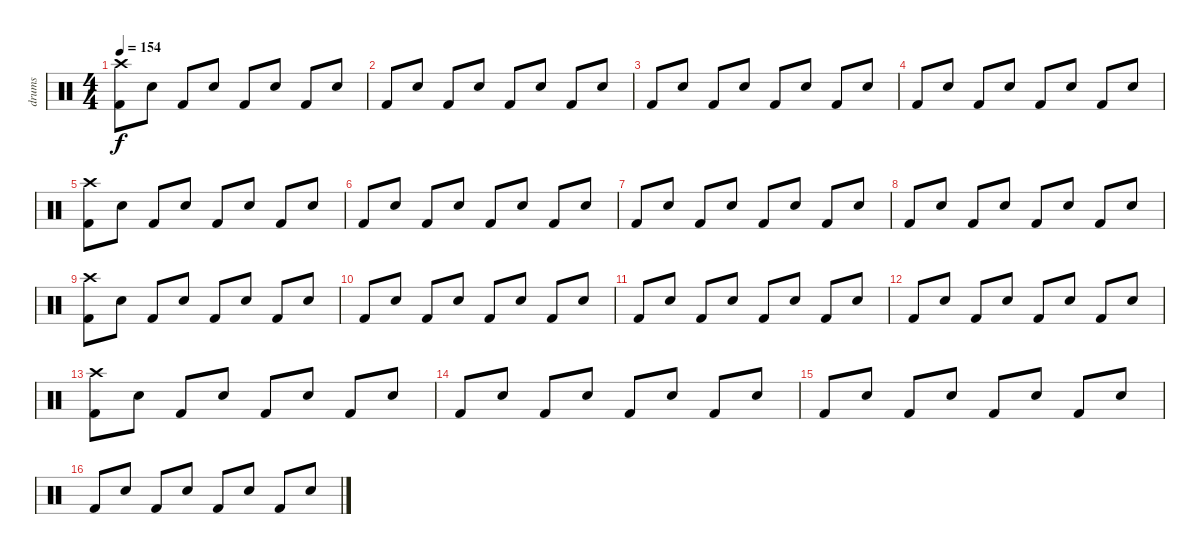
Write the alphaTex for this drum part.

\track ("drums" "drums") {instrument percussion}
\staff {score}
\articulation defaults
\ts (4 4)
\tempo 154
\clef neutral
\ks c
("Crash high (hit)" "Kick (hit) 2").8{dy f} "Snare (hit) 2".8 "Kick (hit) 2".8 "Snare (hit) 2".8 "Kick (hit) 2".8 "Snare (hit) 2".8 "Kick (hit) 2".8 "Snare (hit) 2".8 |
"Kick (hit) 2".8 "Snare (hit) 2".8 "Kick (hit) 2".8 "Snare (hit) 2".8 "Kick (hit) 2".8 "Snare (hit) 2".8 "Kick (hit) 2".8 "Snare (hit) 2".8 |
"Kick (hit) 2".8 "Snare (hit) 2".8 "Kick (hit) 2".8 "Snare (hit) 2".8 "Kick (hit) 2".8 "Snare (hit) 2".8 "Kick (hit) 2".8 "Snare (hit) 2".8 |
"Kick (hit) 2".8 "Snare (hit) 2".8 "Kick (hit) 2".8 "Snare (hit) 2".8 "Kick (hit) 2".8 "Snare (hit) 2".8 "Kick (hit) 2".8 "Snare (hit) 2".8 |
("Crash high (hit)" "Kick (hit) 2").8 "Snare (hit) 2".8 "Kick (hit) 2".8 "Snare (hit) 2".8 "Kick (hit) 2".8 "Snare (hit) 2".8 "Kick (hit) 2".8 "Snare (hit) 2".8 |
"Kick (hit) 2".8 "Snare (hit) 2".8 "Kick (hit) 2".8 "Snare (hit) 2".8 "Kick (hit) 2".8 "Snare (hit) 2".8 "Kick (hit) 2".8 "Snare (hit) 2".8 |
"Kick (hit) 2".8 "Snare (hit) 2".8 "Kick (hit) 2".8 "Snare (hit) 2".8 "Kick (hit) 2".8 "Snare (hit) 2".8 "Kick (hit) 2".8 "Snare (hit) 2".8 |
"Kick (hit) 2".8 "Snare (hit) 2".8 "Kick (hit) 2".8 "Snare (hit) 2".8 "Kick (hit) 2".8 "Snare (hit) 2".8 "Kick (hit) 2".8 "Snare (hit) 2".8 |
("Crash high (hit)" "Kick (hit) 2").8 "Snare (hit) 2".8 "Kick (hit) 2".8 "Snare (hit) 2".8 "Kick (hit) 2".8 "Snare (hit) 2".8 "Kick (hit) 2".8 "Snare (hit) 2".8 |
"Kick (hit) 2".8 "Snare (hit) 2".8 "Kick (hit) 2".8 "Snare (hit) 2".8 "Kick (hit) 2".8 "Snare (hit) 2".8 "Kick (hit) 2".8 "Snare (hit) 2".8 |
"Kick (hit) 2".8 "Snare (hit) 2".8 "Kick (hit) 2".8 "Snare (hit) 2".8 "Kick (hit) 2".8 "Snare (hit) 2".8 "Kick (hit) 2".8 "Snare (hit) 2".8 |
"Kick (hit) 2".8 "Snare (hit) 2".8 "Kick (hit) 2".8 "Snare (hit) 2".8 "Kick (hit) 2".8 "Snare (hit) 2".8 "Kick (hit) 2".8 "Snare (hit) 2".8 |
("Crash high (hit)" "Kick (hit) 2").8 "Snare (hit) 2".8 "Kick (hit) 2".8 "Snare (hit) 2".8 "Kick (hit) 2".8 "Snare (hit) 2".8 "Kick (hit) 2".8 "Snare (hit) 2".8 |
"Kick (hit) 2".8 "Snare (hit) 2".8 "Kick (hit) 2".8 "Snare (hit) 2".8 "Kick (hit) 2".8 "Snare (hit) 2".8 "Kick (hit) 2".8 "Snare (hit) 2".8 |
"Kick (hit) 2".8 "Snare (hit) 2".8 "Kick (hit) 2".8 "Snare (hit) 2".8 "Kick (hit) 2".8 "Snare (hit) 2".8 "Kick (hit) 2".8 "Snare (hit) 2".8 |
"Kick (hit) 2".8 "Snare (hit) 2".8 "Kick (hit) 2".8 "Snare (hit) 2".8 "Kick (hit) 2".8 "Snare (hit) 2".8 "Kick (hit) 2".8 "Snare (hit) 2".8
